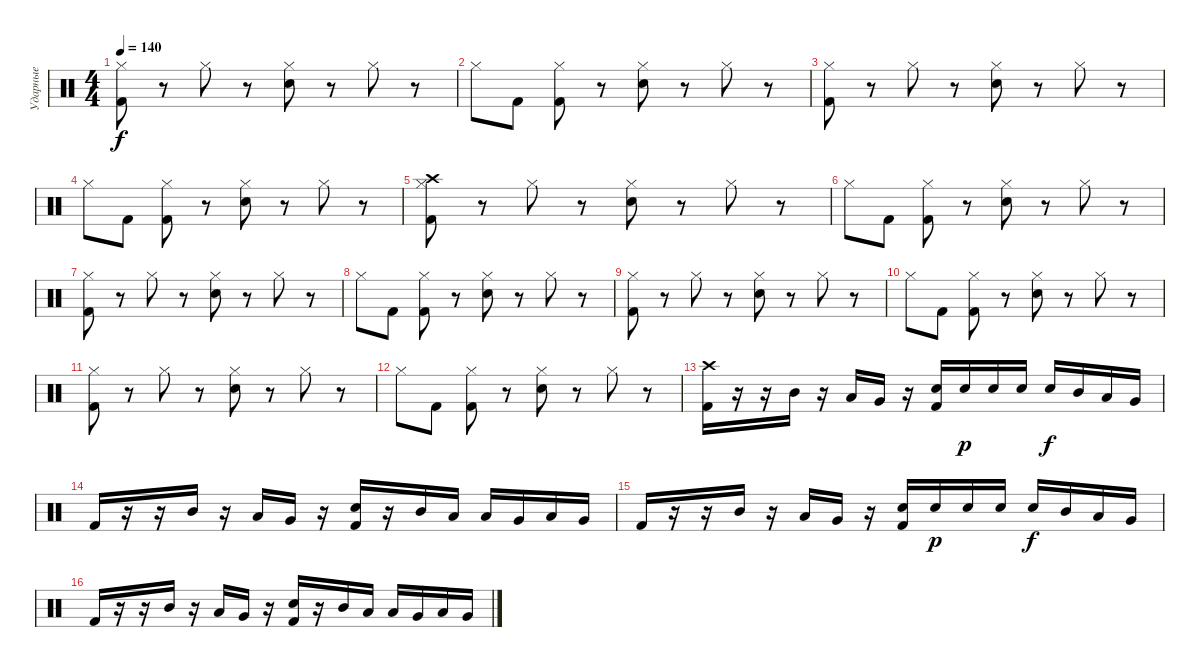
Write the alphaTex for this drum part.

\track ("Ударные" "Ударные") {instrument percussion}
\staff {score}
\articulation defaults
\ts (4 4)
\tempo 140
\clef neutral
\ks c
("Hi-Hat (closed)" "Kick (hit) 2").8{dy f} r.8 "Hi-Hat (closed)".8 r.8 ("Hi-Hat (closed)" "Snare (hit) 2").8 r.8 "Hi-Hat (closed)".8 r.8 |
"Hi-Hat (closed)".8 "Kick (hit) 2".8 ("Hi-Hat (closed)" "Kick (hit) 2").8 r.8 ("Hi-Hat (closed)" "Snare (hit) 2").8 r.8 "Hi-Hat (closed)".8 r.8 |
("Hi-Hat (closed)" "Kick (hit) 2").8 r.8 "Hi-Hat (closed)".8 r.8 ("Hi-Hat (closed)" "Snare (hit) 2").8 r.8 "Hi-Hat (closed)".8 r.8 |
"Hi-Hat (closed)".8 "Kick (hit) 2".8 ("Hi-Hat (closed)" "Kick (hit) 2").8 r.8 ("Hi-Hat (closed)" "Snare (hit) 2").8 r.8 "Hi-Hat (closed)".8 r.8 |
("Hi-Hat (closed)" "Crash high (hit)" "Kick (hit) 2").8 r.8 "Hi-Hat (closed)".8 r.8 ("Hi-Hat (closed)" "Snare (hit) 2").8 r.8 "Hi-Hat (closed)".8 r.8 |
"Hi-Hat (closed)".8 "Kick (hit) 2".8 ("Hi-Hat (closed)" "Kick (hit) 2").8 r.8 ("Hi-Hat (closed)" "Snare (hit) 2").8 r.8 "Hi-Hat (closed)".8 r.8 |
("Hi-Hat (closed)" "Kick (hit) 2").8 r.8 "Hi-Hat (closed)".8 r.8 ("Hi-Hat (closed)" "Snare (hit) 2").8 r.8 "Hi-Hat (closed)".8 r.8 |
"Hi-Hat (closed)".8 "Kick (hit) 2".8 ("Hi-Hat (closed)" "Kick (hit) 2").8 r.8 ("Hi-Hat (closed)" "Snare (hit) 2").8 r.8 "Hi-Hat (closed)".8 r.8 |
("Hi-Hat (closed)" "Kick (hit) 2").8 r.8 "Hi-Hat (closed)".8 r.8 ("Hi-Hat (closed)" "Snare (hit) 2").8 r.8 "Hi-Hat (closed)".8 r.8 |
"Hi-Hat (closed)".8 "Kick (hit) 2".8 ("Hi-Hat (closed)" "Kick (hit) 2").8 r.8 ("Hi-Hat (closed)" "Snare (hit) 2").8 r.8 "Hi-Hat (closed)".8 r.8 |
("Hi-Hat (closed)" "Kick (hit) 2").8 r.8 "Hi-Hat (closed)".8 r.8 ("Hi-Hat (closed)" "Snare (hit) 2").8 r.8 "Hi-Hat (closed)".8 r.8 |
"Hi-Hat (closed)".8 "Kick (hit) 2".8 ("Hi-Hat (closed)" "Kick (hit) 2").8 r.8 ("Hi-Hat (closed)" "Snare (hit) 2").8 r.8 "Hi-Hat (closed)".8 r.8 |
("Crash high (hit)" "Kick (hit) 2").16 r.16 r.16 "Mid Tom (hit)".16 r.16 "Low Tom (hit)".16 "Very Low Tom (hit)".16 r.16 ("Snare (hit) 2" "Kick (hit) 2").16 "Snare (hit) 2".16{dy p} "Snare (hit) 2".16 "Snare (hit) 2".16 "Snare (hit) 2".16{dy f} "Mid Tom (hit)".16 "Low Tom (hit)".16 "Very Low Tom (hit)".16 |
"Kick (hit) 2".16 r.16 r.16 "Mid Tom (hit)".16 r.16 "Low Tom (hit)".16 "Very Low Tom (hit)".16 r.16 ("Snare (hit) 2" "Kick (hit) 2").16 r.16 "Mid Tom (hit)".16 "Low Tom (hit)".16 "Low Tom (hit)".16 "Very Low Tom (hit)".16 "Low Floor Tom (hit)".16 "Very Low Tom (hit)".16 |
"Kick (hit) 2".16 r.16 r.16 "Mid Tom (hit)".16 r.16 "Low Tom (hit)".16 "Very Low Tom (hit)".16 r.16 ("Snare (hit) 2" "Kick (hit) 2").16 "Snare (hit) 2".16{dy p} "Snare (hit) 2".16 "Snare (hit) 2".16 "Snare (hit) 2".16{dy f} "Mid Tom (hit)".16 "Low Tom (hit)".16 "Very Low Tom (hit)".16 |
"Kick (hit) 2".16 r.16 r.16 "Mid Tom (hit)".16 r.16 "Low Tom (hit)".16 "Very Low Tom (hit)".16 r.16 ("Snare (hit) 2" "Kick (hit) 2").16 r.16 "Mid Tom (hit)".16 "Low Tom (hit)".16 "Low Tom (hit)".16 "Very Low Tom (hit)".16 "Low Floor Tom (hit)".16 "Very Low Tom (hit)".16
